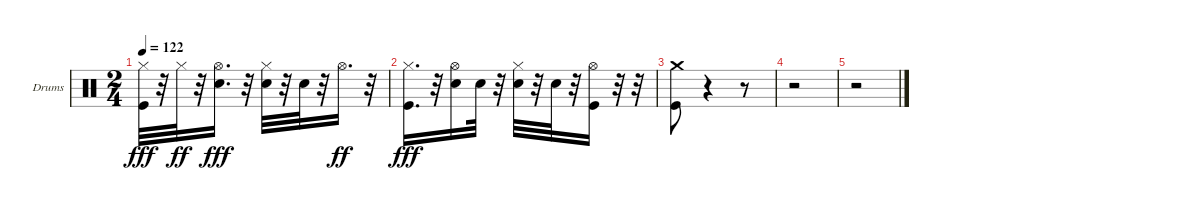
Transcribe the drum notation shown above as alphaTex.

\bracketExtendMode groupsimilarinstruments
\firstSystemTrackNameOrientation horizontal
\otherSystemsTrackNameOrientation horizontal
\track ("Ударные" "Drums") {instrument percussion}
\staff {score}
\articulation defaults
\ts (2 4)
\tempo 122
\clef neutral
\ks c
("Kick (hit)" "Hi-Hat (closed)").32{dy fff} r.32 "Hi-Hat (closed)".32{dy ff} r.32 ("Snare (hit) 2" "Hi-Hat (open)").16{d dy fff} r.32 ("Snare (hit) 2" "Hi-Hat (closed)").32 r.32 "Snare (hit) 2".32 r.32 "Hi-Hat (open)".16{d dy ff} r.32 |
("Kick (hit)" "Hi-Hat (closed)").16{d dy fff} r.32 ("Snare (hit) 2" "Hi-Hat (open)").16 "Snare (hit) 2".32 r.32 ("Snare (hit) 2" "Hi-Hat (closed)").32 r.32 "Snare (hit) 2".32 r.32 ("Kick (hit)" "Hi-Hat (open)").16 r.32 r.32 |
("Kick (hit)" "Crash medium (hit)").8 r.4 r.8 |
r.2 |
r.2
